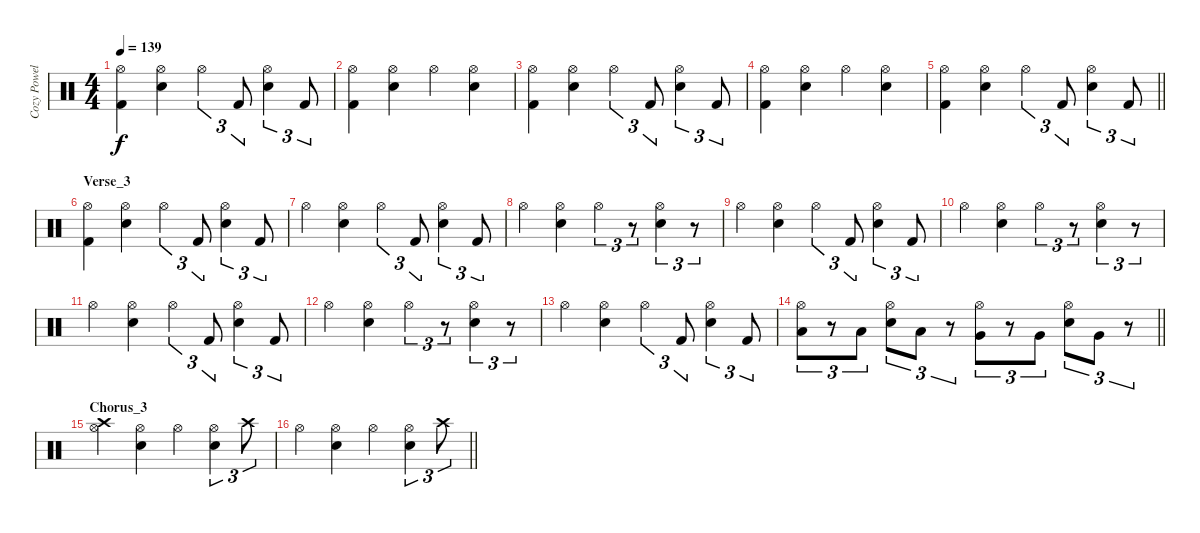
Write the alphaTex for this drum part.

\track ("Cozy Powell" "Cozy Powel") {instrument percussion}
\staff {score}
\articulation defaults
\ts (4 4)
\tempo 139
\clef neutral
\ks c
("Hi-Hat (open)" "Kick (hit) 2").4{dy f} ("Hi-Hat (open)" "Snare (hit) 2").4 "Hi-Hat (open)".4{tu (3 2)} "Kick (hit) 2".8{tu (3 2)} ("Hi-Hat (open)" "Snare (hit) 2").4{tu (3 2)} "Kick (hit) 2".8{tu (3 2)} |
("Hi-Hat (open)" "Kick (hit) 2").4 ("Hi-Hat (open)" "Snare (hit) 2").4 "Hi-Hat (open)".4 ("Hi-Hat (open)" "Snare (hit) 2").4 |
("Hi-Hat (open)" "Kick (hit) 2").4 ("Hi-Hat (open)" "Snare (hit) 2").4 "Hi-Hat (open)".4{tu (3 2)} "Kick (hit) 2".8{tu (3 2)} ("Hi-Hat (open)" "Snare (hit) 2").4{tu (3 2)} "Kick (hit) 2".8{tu (3 2)} |
("Hi-Hat (open)" "Kick (hit) 2").4 ("Hi-Hat (open)" "Snare (hit) 2").4 "Hi-Hat (open)".4 ("Hi-Hat (open)" "Snare (hit) 2").4 |
\barLineRight lightlight
("Hi-Hat (open)" "Kick (hit) 2").4 ("Hi-Hat (open)" "Snare (hit) 2").4 "Hi-Hat (open)".4{tu (3 2)} "Kick (hit) 2".8{tu (3 2)} ("Hi-Hat (open)" "Snare (hit) 2").4{tu (3 2)} "Kick (hit) 2".8{tu (3 2)} |
\section ("" "Verse_3")
("Hi-Hat (open)" "Kick (hit) 2").4 ("Hi-Hat (open)" "Snare (hit) 2").4 "Hi-Hat (open)".4{tu (3 2)} "Kick (hit) 2".8{tu (3 2)} ("Hi-Hat (open)" "Snare (hit) 2").4{tu (3 2)} "Kick (hit) 2".8{tu (3 2)} |
"Hi-Hat (open)".4 ("Hi-Hat (open)" "Snare (hit) 2").4 "Hi-Hat (open)".4{tu (3 2)} "Kick (hit) 2".8{tu (3 2)} ("Hi-Hat (open)" "Snare (hit) 2").4{tu (3 2)} "Kick (hit) 2".8{tu (3 2)} |
"Hi-Hat (open)".4 ("Hi-Hat (open)" "Snare (hit) 2").4 "Hi-Hat (open)".4{tu (3 2)} r.8{tu (3 2)} ("Hi-Hat (open)" "Snare (hit) 2").4{tu (3 2)} r.8{tu (3 2)} |
"Hi-Hat (open)".4 ("Hi-Hat (open)" "Snare (hit) 2").4 "Hi-Hat (open)".4{tu (3 2)} "Kick (hit) 2".8{tu (3 2)} ("Hi-Hat (open)" "Snare (hit) 2").4{tu (3 2)} "Kick (hit) 2".8{tu (3 2)} |
"Hi-Hat (open)".4 ("Hi-Hat (open)" "Snare (hit) 2").4 "Hi-Hat (open)".4{tu (3 2)} r.8{tu (3 2)} ("Hi-Hat (open)" "Snare (hit) 2").4{tu (3 2)} r.8{tu (3 2)} |
"Hi-Hat (open)".4 ("Hi-Hat (open)" "Snare (hit) 2").4 "Hi-Hat (open)".4{tu (3 2)} "Kick (hit) 2".8{tu (3 2)} ("Hi-Hat (open)" "Snare (hit) 2").4{tu (3 2)} "Kick (hit) 2".8{tu (3 2)} |
"Hi-Hat (open)".4 ("Hi-Hat (open)" "Snare (hit) 2").4 "Hi-Hat (open)".4{tu (3 2)} r.8{tu (3 2)} ("Hi-Hat (open)" "Snare (hit) 2").4{tu (3 2)} r.8{tu (3 2)} |
"Hi-Hat (open)".4 ("Hi-Hat (open)" "Snare (hit) 2").4 "Hi-Hat (open)".4{tu (3 2)} "Kick (hit) 2".8{tu (3 2)} ("Hi-Hat (open)" "Snare (hit) 2").4{tu (3 2)} "Kick (hit) 2".8{tu (3 2)} |
\barLineRight lightlight
("Hi-Hat (open)" "Low Tom (hit)").8{tu (3 2)} r.8{tu (3 2)} "Low Tom (hit)".8{tu (3 2)} ("Hi-Hat (open)" "Snare (hit) 2").8{tu (3 2)} "Low Tom (hit)".8{tu (3 2)} r.8{tu (3 2)} ("Hi-Hat (open)" "Very Low Tom (hit)").8{tu (3 2)} r.8{tu (3 2)} "Very Low Tom (hit)".8{tu (3 2)} ("Hi-Hat (open)" "Snare (hit) 2").8{tu (3 2)} "Very Low Tom (hit)".8{tu (3 2)} r.8{tu (3 2)} |
\section ("" "Chorus_3")
("Hi-Hat (open)" "Crash high (hit)").4 ("Hi-Hat (open)" "Snare (hit) 2").4 "Hi-Hat (open)".4 ("Hi-Hat (open)" "Snare (hit) 2").4{tu (3 2)} "Crash high (hit)".8{tu (3 2)} |
\barLineRight lightlight "Hi-Hat (open)".4
("Hi-Hat (open)" "Snare (hit) 2").4 "Hi-Hat (open)".4 ("Hi-Hat (open)" "Snare (hit) 2").4{tu (3 2)} "Crash high (hit)".8{tu (3 2)}
